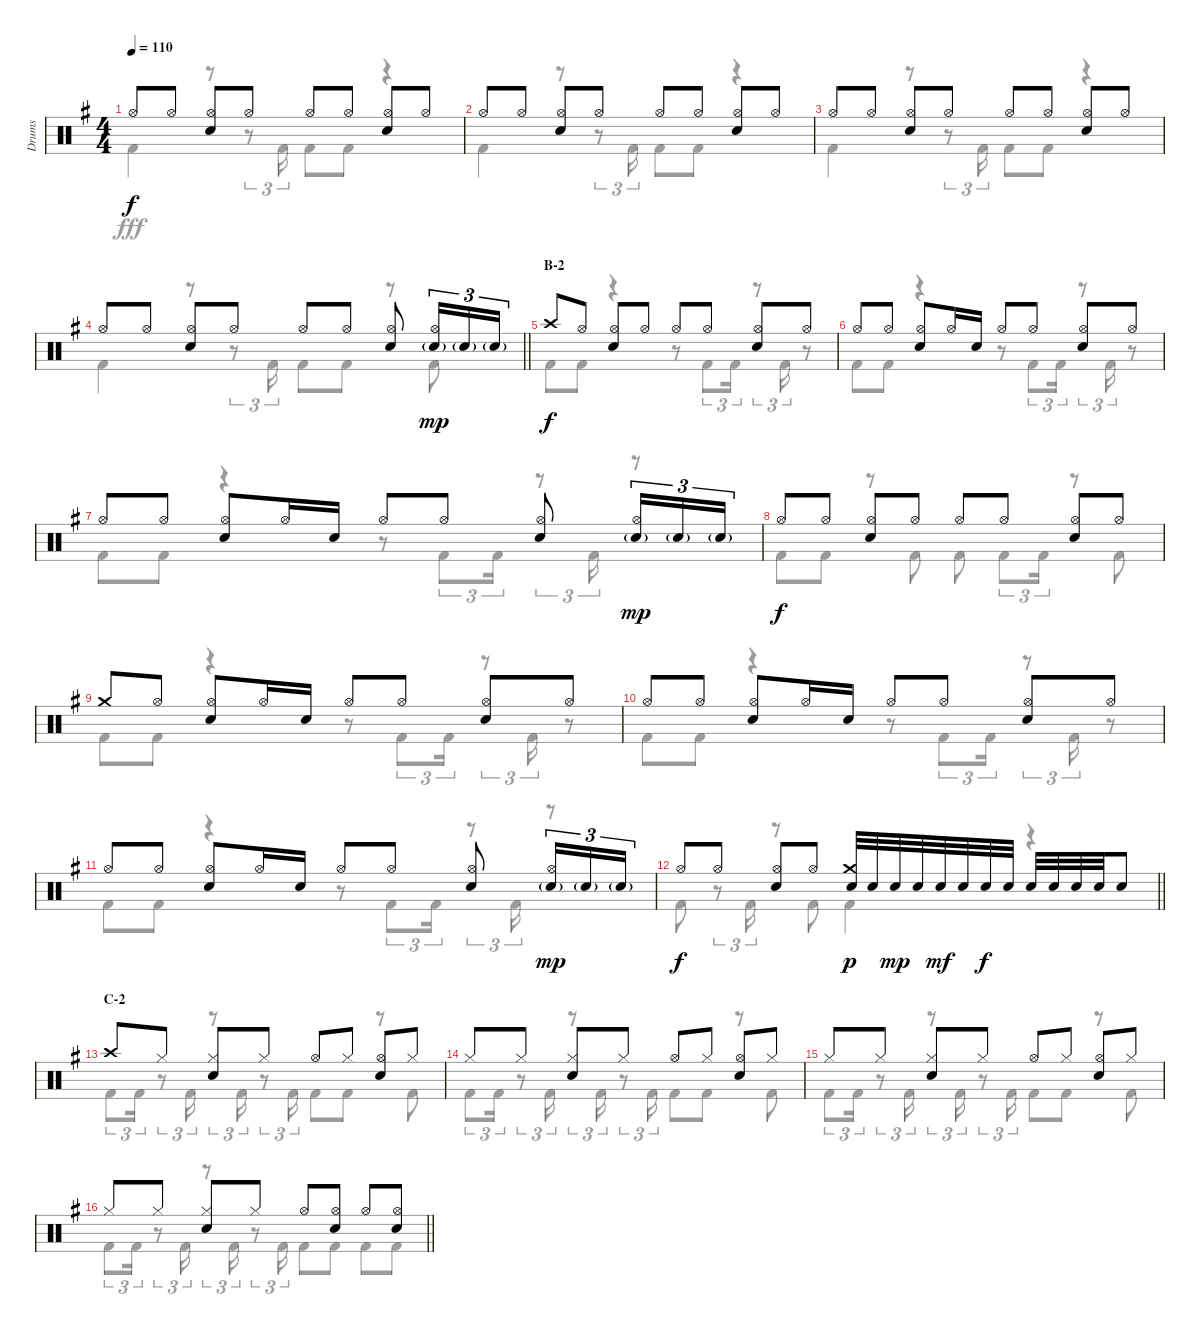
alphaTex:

\track ("Drums" "Drums") {instrument percussion}
\staff {score}
\articulation defaults
\voice
\ts (4 4)
\tempo 110
\clef neutral
\ks g "Hi-Hat (open)".8{dy f} "Hi-Hat (open)".8
("Hi-Hat (open)" "Snare (hit) 2").8 "Hi-Hat (open)".8 "Hi-Hat (open)".8 "Hi-Hat (open)".8 ("Hi-Hat (open)" "Snare (hit) 2").8 "Hi-Hat (open)".8 |
"Hi-Hat (open)".8 "Hi-Hat (open)".8 ("Hi-Hat (open)" "Snare (hit) 2").8 "Hi-Hat (open)".8 "Hi-Hat (open)".8 "Hi-Hat (open)".8 ("Hi-Hat (open)" "Snare (hit) 2").8 "Hi-Hat (open)".8 |
"Hi-Hat (open)".8 "Hi-Hat (open)".8 ("Hi-Hat (open)" "Snare (hit) 2").8 "Hi-Hat (open)".8 "Hi-Hat (open)".8 "Hi-Hat (open)".8 ("Hi-Hat (open)" "Snare (hit) 2").8 "Hi-Hat (open)".8 |
\barLineRight lightlight "Hi-Hat (open)".8 "Hi-Hat (open)".8
("Hi-Hat (open)" "Snare (hit) 2").8 "Hi-Hat (open)".8 "Hi-Hat (open)".8 "Hi-Hat (open)".8 ("Hi-Hat (open)" "Snare (hit) 2").8 ("Hi-Hat (open)" "Snare (hit) 2"{g}).16{tu (3 2) dy mp} "Snare (hit) 2"{g}.16{tu (3 2)} "Snare (hit) 2"{g}.16{tu (3 2)} |
\section ("" "B-2")
"Crash high (hit)".8{dy f} "Hi-Hat (open)".8 ("Hi-Hat (open)" "Snare (hit) 2").8 "Hi-Hat (open)".8 "Hi-Hat (open)".8 "Hi-Hat (open)".8 ("Hi-Hat (open)" "Snare (hit) 2").8 "Hi-Hat (open)".8 |
"Hi-Hat (open)".8 "Hi-Hat (open)".8 ("Hi-Hat (open)" "Snare (hit) 2").8 "Hi-Hat (open)".16 "Snare (hit) 2".16 "Hi-Hat (open)".8 "Hi-Hat (open)".8 ("Hi-Hat (open)" "Snare (hit) 2").8 "Hi-Hat (open)".8 |
"Hi-Hat (open)".8 "Hi-Hat (open)".8 ("Hi-Hat (open)" "Snare (hit) 2").8 "Hi-Hat (open)".16 "Snare (hit) 2".16 "Hi-Hat (open)".8 "Hi-Hat (open)".8 ("Hi-Hat (open)" "Snare (hit) 2").8 ("Hi-Hat (open)" "Snare (hit) 2"{g}).16{tu (3 2) dy mp} "Snare (hit) 2"{g}.16{tu (3 2)} "Snare (hit) 2"{g}.16{tu (3 2)} |
"Hi-Hat (open)".8{dy f} "Hi-Hat (open)".8 ("Hi-Hat (open)" "Snare (hit) 2").8 "Hi-Hat (open)".8 "Hi-Hat (open)".8 "Hi-Hat (open)".8 ("Hi-Hat (open)" "Snare (hit) 2").8 "Hi-Hat (open)".8 |
"Crash medium (hit)".8 "Hi-Hat (open)".8 ("Hi-Hat (open)" "Snare (hit) 2").8 "Hi-Hat (open)".16 "Snare (hit) 2".16 "Hi-Hat (open)".8 "Hi-Hat (open)".8 ("Hi-Hat (open)" "Snare (hit) 2").8 "Hi-Hat (open)".8 |
"Hi-Hat (open)".8 "Hi-Hat (open)".8 ("Hi-Hat (open)" "Snare (hit) 2").8 "Hi-Hat (open)".16 "Snare (hit) 2".16 "Hi-Hat (open)".8 "Hi-Hat (open)".8 ("Hi-Hat (open)" "Snare (hit) 2").8 "Hi-Hat (open)".8 |
"Hi-Hat (open)".8 "Hi-Hat (open)".8 ("Hi-Hat (open)" "Snare (hit) 2").8 "Hi-Hat (open)".16 "Snare (hit) 2".16 "Hi-Hat (open)".8 "Hi-Hat (open)".8 ("Hi-Hat (open)" "Snare (hit) 2").8 ("Hi-Hat (open)" "Snare (hit) 2"{g}).16{tu (3 2) dy mp} "Snare (hit) 2"{g}.16{tu (3 2)} "Snare (hit) 2"{g}.16{tu (3 2)} |
\barLineRight lightlight "Hi-Hat (open)".8{dy f} "Hi-Hat (open)".8
("Hi-Hat (open)" "Snare (hit) 2").8 "Hi-Hat (open)".8 ("Crash medium (hit)" "Snare (hit) 2").32{dy p} "Snare (hit) 2".32 "Snare (hit) 2".32{dy mp} "Snare (hit) 2".32 "Snare (hit) 2".32{dy mf} "Snare (hit) 2".32 "Snare (hit) 2".32{dy f} "Snare (hit) 2".32 "Snare (hit) 2".32 "Snare (hit) 2".32 "Snare (hit) 2".32 "Snare (hit) 2".32 "Snare (hit) 2".8 |
\section ("" "C-2")
"Crash high (hit)".8 "Hi-Hat (closed)".8 ("Hi-Hat (closed)" "Snare (hit) 2").8 "Hi-Hat (closed)".8 "Hi-Hat (open)".8 "Hi-Hat (closed)".8 ("Hi-Hat (open)" "Snare (hit) 2").8 "Hi-Hat (closed)".8 |
"Hi-Hat (closed)".8 "Hi-Hat (closed)".8 ("Hi-Hat (closed)" "Snare (hit) 2").8 "Hi-Hat (closed)".8 "Hi-Hat (open)".8 "Hi-Hat (closed)".8 ("Hi-Hat (open)" "Snare (hit) 2").8 "Hi-Hat (closed)".8 |
"Hi-Hat (closed)".8 "Hi-Hat (closed)".8 ("Hi-Hat (closed)" "Snare (hit) 2").8 "Hi-Hat (closed)".8 "Hi-Hat (open)".8 "Hi-Hat (closed)".8 ("Hi-Hat (open)" "Snare (hit) 2").8 "Hi-Hat (closed)".8 |
\barLineRight lightlight "Hi-Hat (closed)".8 "Hi-Hat (closed)".8
("Hi-Hat (closed)" "Snare (hit) 2").8 "Hi-Hat (closed)".8 "Hi-Hat (open)".8 ("Hi-Hat (open)" "Snare (hit) 2").8 "Hi-Hat (open)".8 ("Hi-Hat (open)" "Snare (hit) 2").8
\voice
\clef neutral
\ottava regular
\simile none
\ks g "Kick (hit) 2".4{dy fff}
r.8 r.8{tu (3 2)} "Kick (hit) 2".16{tu (3 2)} "Kick (hit) 2".8 "Kick (hit) 2".8 r.4 |
"Kick (hit) 2".4 r.8 r.8{tu (3 2)} "Kick (hit) 2".16{tu (3 2)} "Kick (hit) 2".8 "Kick (hit) 2".8 r.4 |
"Kick (hit) 2".4 r.8 r.8{tu (3 2)} "Kick (hit) 2".16{tu (3 2)} "Kick (hit) 2".8 "Kick (hit) 2".8 r.4 |
\barLineRight lightlight "Kick (hit) 2".4
r.8 r.8{tu (3 2)} "Kick (hit) 2".16{tu (3 2)} "Kick (hit) 2".8 "Kick (hit) 2".8 r.8 "Kick (hit) 2".8 |
"Kick (hit) 2".8 "Kick (hit) 2".8 r.4 r.8 "Kick (hit) 2".8{tu (3 2)} "Kick (hit) 2".16{tu (3 2)} r.8{tu (3 2)} "Kick (hit) 2".16{tu (3 2)} r.8 |
"Kick (hit) 2".8 "Kick (hit) 2".8 r.4 r.8 "Kick (hit) 2".8{tu (3 2)} "Kick (hit) 2".16{tu (3 2)} r.8{tu (3 2)} "Kick (hit) 2".16{tu (3 2)} r.8 |
"Kick (hit) 2".8 "Kick (hit) 2".8 r.4 r.8 "Kick (hit) 2".8{tu (3 2)} "Kick (hit) 2".16{tu (3 2)} r.8{tu (3 2)} "Kick (hit) 2".16{tu (3 2)} r.8 |
"Kick (hit) 2".8 "Kick (hit) 2".8 r.8 "Kick (hit) 2".8 "Kick (hit) 2".8 "Kick (hit) 2".8{tu (3 2)} "Kick (hit) 2".16{tu (3 2)} r.8 "Kick (hit) 2".8 |
"Kick (hit) 2".8 "Kick (hit) 2".8 r.4 r.8 "Kick (hit) 2".8{tu (3 2)} "Kick (hit) 2".16{tu (3 2)} r.8{tu (3 2)} "Kick (hit) 2".16{tu (3 2)} r.8 |
"Kick (hit) 2".8 "Kick (hit) 2".8 r.4 r.8 "Kick (hit) 2".8{tu (3 2)} "Kick (hit) 2".16{tu (3 2)} r.8{tu (3 2)} "Kick (hit) 2".16{tu (3 2)} r.8 |
"Kick (hit) 2".8 "Kick (hit) 2".8 r.4 r.8 "Kick (hit) 2".8{tu (3 2)} "Kick (hit) 2".16{tu (3 2)} r.8{tu (3 2)} "Kick (hit) 2".16{tu (3 2)} r.8 |
\barLineRight lightlight "Kick (hit) 2".8
r.8{tu (3 2)} "Kick (hit) 2".16{tu (3 2)} r.8 "Kick (hit) 2".8 "Kick (hit) 2".4 r.4 |
"Kick (hit) 2".8{tu (3 2)} "Kick (hit) 2".16{tu (3 2)} r.8{tu (3 2)} "Kick (hit) 2".16{tu (3 2)} r.8{tu (3 2)} "Kick (hit) 2".16{tu (3 2)} r.8{tu (3 2)} "Kick (hit) 2".16{tu (3 2)} "Kick (hit) 2".8 "Kick (hit) 2".8 r.8 "Kick (hit) 2".8 |
"Kick (hit) 2".8{tu (3 2)} "Kick (hit) 2".16{tu (3 2)} r.8{tu (3 2)} "Kick (hit) 2".16{tu (3 2)} r.8{tu (3 2)} "Kick (hit) 2".16{tu (3 2)} r.8{tu (3 2)} "Kick (hit) 2".16{tu (3 2)} "Kick (hit) 2".8 "Kick (hit) 2".8 r.8 "Kick (hit) 2".8 |
"Kick (hit) 2".8{tu (3 2)} "Kick (hit) 2".16{tu (3 2)} r.8{tu (3 2)} "Kick (hit) 2".16{tu (3 2)} r.8{tu (3 2)} "Kick (hit) 2".16{tu (3 2)} r.8{tu (3 2)} "Kick (hit) 2".16{tu (3 2)} "Kick (hit) 2".8 "Kick (hit) 2".8 r.8 "Kick (hit) 2".8 |
\barLineRight lightlight "Kick (hit) 2".8{tu (3 2)} "Kick (hit) 2".16{tu (3 2)}
r.8{tu (3 2)} "Kick (hit) 2".16{tu (3 2)} r.8{tu (3 2)} "Kick (hit) 2".16{tu (3 2)} r.8{tu (3 2)} "Kick (hit) 2".16{tu (3 2)} "Kick (hit) 2".8 "Kick (hit) 2".8 "Kick (hit) 2".8 "Kick (hit) 2".8
